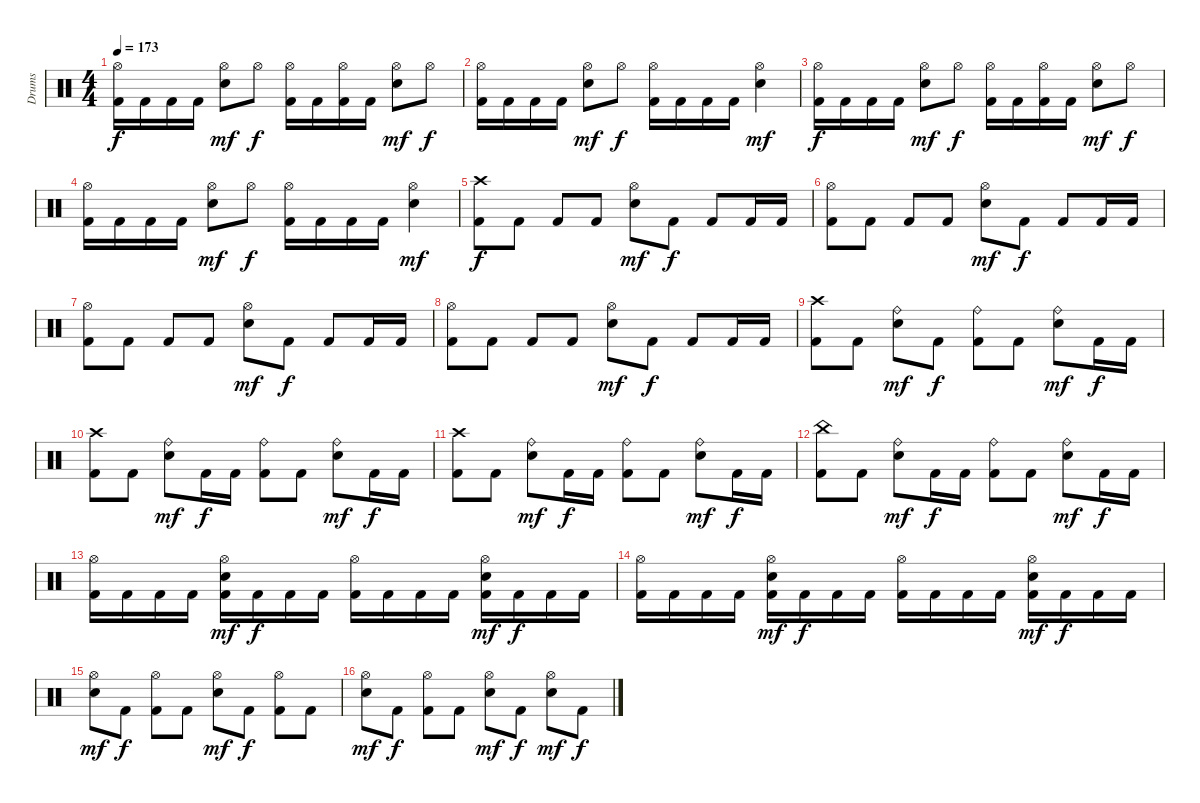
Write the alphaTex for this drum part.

\track ("Drums" "Drums") {instrument percussion}
\staff {score}
\articulation defaults
\ts (4 4)
\tempo 173
\clef neutral
\ks c
("Hi-Hat (open)" "Kick (hit) 2").16{dy f} "Kick (hit) 2".16 "Kick (hit) 2".16 "Kick (hit) 2".16 ("Hi-Hat (open)" "Snare (hit) 2").8{dy mf} "Hi-Hat (open)".8{dy f} ("Hi-Hat (open)" "Kick (hit) 2").16 "Kick (hit) 2".16 ("Hi-Hat (open)" "Kick (hit) 2").16 "Kick (hit) 2".16 ("Hi-Hat (open)" "Snare (hit) 2").8{dy mf} "Hi-Hat (open)".8{dy f} |
("Hi-Hat (open)" "Kick (hit) 2").16 "Kick (hit) 2".16 "Kick (hit) 2".16 "Kick (hit) 2".16 ("Hi-Hat (open)" "Snare (hit) 2").8{dy mf} "Hi-Hat (open)".8{dy f} ("Hi-Hat (open)" "Kick (hit) 2").16 "Kick (hit) 2".16 "Kick (hit) 2".16 "Kick (hit) 2".16 ("Hi-Hat (open)" "Snare (hit) 2").4{dy mf} |
("Hi-Hat (open)" "Kick (hit) 2").16{dy f} "Kick (hit) 2".16 "Kick (hit) 2".16 "Kick (hit) 2".16 ("Hi-Hat (open)" "Snare (hit) 2").8{dy mf} "Hi-Hat (open)".8{dy f} ("Hi-Hat (open)" "Kick (hit) 2").16 "Kick (hit) 2".16 ("Hi-Hat (open)" "Kick (hit) 2").16 "Kick (hit) 2".16 ("Hi-Hat (open)" "Snare (hit) 2").8{dy mf} "Hi-Hat (open)".8{dy f} |
("Hi-Hat (open)" "Kick (hit) 2").16 "Kick (hit) 2".16 "Kick (hit) 2".16 "Kick (hit) 2".16 ("Hi-Hat (open)" "Snare (hit) 2").8{dy mf} "Hi-Hat (open)".8{dy f} ("Hi-Hat (open)" "Kick (hit) 2").16 "Kick (hit) 2".16 "Kick (hit) 2".16 "Kick (hit) 2".16 ("Hi-Hat (open)" "Snare (hit) 2").4{dy mf} |
\section ("" "")
("Crash high (hit)" "Kick (hit) 2").8{dy f} "Kick (hit) 2".8 "Kick (hit) 2".8 "Kick (hit) 2".8 ("Hi-Hat (open)" "Snare (hit) 2").8{dy mf} "Kick (hit) 2".8{dy f} "Kick (hit) 2".8 "Kick (hit) 2".16 "Kick (hit) 2".16 |
("Hi-Hat (open)" "Kick (hit) 2").8 "Kick (hit) 2".8 "Kick (hit) 2".8 "Kick (hit) 2".8 ("Hi-Hat (open)" "Snare (hit) 2").8{dy mf} "Kick (hit) 2".8{dy f} "Kick (hit) 2".8 "Kick (hit) 2".16 "Kick (hit) 2".16 |
("Hi-Hat (open)" "Kick (hit) 2").8 "Kick (hit) 2".8 "Kick (hit) 2".8 "Kick (hit) 2".8 ("Hi-Hat (open)" "Snare (hit) 2").8{dy mf} "Kick (hit) 2".8{dy f} "Kick (hit) 2".8 "Kick (hit) 2".16 "Kick (hit) 2".16 |
("Hi-Hat (open)" "Kick (hit) 2").8 "Kick (hit) 2".8 "Kick (hit) 2".8 "Kick (hit) 2".8 ("Hi-Hat (open)" "Snare (hit) 2").8{dy mf} "Kick (hit) 2".8{dy f} "Kick (hit) 2".8 "Kick (hit) 2".16 "Kick (hit) 2".16 |
\section ("" "")
("Crash high (hit)" "Kick (hit) 2").8 "Kick (hit) 2".8 ("Ride (bell)" "Snare (hit) 2").8{dy mf} "Kick (hit) 2".8{dy f} ("Ride (bell)" "Kick (hit) 2").8 "Kick (hit) 2".8 ("Ride (bell)" "Snare (hit) 2").8{dy mf} "Kick (hit) 2".16{dy f} "Kick (hit) 2".16 |
("Crash high (hit)" "Kick (hit) 2").8 "Kick (hit) 2".8 ("Ride (bell)" "Snare (hit) 2").8{dy mf} "Kick (hit) 2".16{dy f} "Kick (hit) 2".16 ("Ride (bell)" "Kick (hit) 2").8 "Kick (hit) 2".8 ("Ride (bell)" "Snare (hit) 2").8{dy mf} "Kick (hit) 2".16{dy f} "Kick (hit) 2".16 |
("Crash high (hit)" "Kick (hit) 2").8 "Kick (hit) 2".8 ("Ride (bell)" "Snare (hit) 2").8{dy mf} "Kick (hit) 2".16{dy f} "Kick (hit) 2".16 ("Ride (bell)" "Kick (hit) 2").8 "Kick (hit) 2".8 ("Ride (bell)" "Snare (hit) 2").8{dy mf} "Kick (hit) 2".16{dy f} "Kick (hit) 2".16 |
("China (hit)" "Kick (hit) 2").8 "Kick (hit) 2".8 ("Ride (bell)" "Snare (hit) 2").8{dy mf} "Kick (hit) 2".16{dy f} "Kick (hit) 2".16 ("Ride (bell)" "Kick (hit) 2").8 "Kick (hit) 2".8 ("Ride (bell)" "Snare (hit) 2").8{dy mf} "Kick (hit) 2".16{dy f} "Kick (hit) 2".16 |
("Hi-Hat (open)" "Kick (hit) 2").16 "Kick (hit) 2".16 "Kick (hit) 2".16 "Kick (hit) 2".16 ("Hi-Hat (open)" "Snare (hit) 2" "Kick (hit) 2").16{dy mf} "Kick (hit) 2".16{dy f} "Kick (hit) 2".16 "Kick (hit) 2".16 ("Hi-Hat (open)" "Kick (hit) 2").16 "Kick (hit) 2".16 "Kick (hit) 2".16 "Kick (hit) 2".16 ("Hi-Hat (open)" "Snare (hit) 2" "Kick (hit) 2").16{dy mf} "Kick (hit) 2".16{dy f} "Kick (hit) 2".16 "Kick (hit) 2".16 |
("Hi-Hat (open)" "Kick (hit) 2").16 "Kick (hit) 2".16 "Kick (hit) 2".16 "Kick (hit) 2".16 ("Hi-Hat (open)" "Snare (hit) 2" "Kick (hit) 2").16{dy mf} "Kick (hit) 2".16{dy f} "Kick (hit) 2".16 "Kick (hit) 2".16 ("Hi-Hat (open)" "Kick (hit) 2").16 "Kick (hit) 2".16 "Kick (hit) 2".16 "Kick (hit) 2".16 ("Hi-Hat (open)" "Snare (hit) 2" "Kick (hit) 2").16{dy mf} "Kick (hit) 2".16{dy f} "Kick (hit) 2".16 "Kick (hit) 2".16 |
("Hi-Hat (open)" "Snare (hit) 2").8{dy mf} "Kick (hit) 2".8{dy f} ("Hi-Hat (open)" "Kick (hit) 2").8 "Kick (hit) 2".8 ("Hi-Hat (open)" "Snare (hit) 2").8{dy mf} "Kick (hit) 2".8{dy f} ("Hi-Hat (open)" "Kick (hit) 2").8 "Kick (hit) 2".8 |
("Hi-Hat (open)" "Snare (hit) 2").8{dy mf} "Kick (hit) 2".8{dy f} ("Hi-Hat (open)" "Kick (hit) 2").8 "Kick (hit) 2".8 ("Hi-Hat (open)" "Snare (hit) 2").8{dy mf} "Kick (hit) 2".8{dy f} ("Hi-Hat (open)" "Snare (hit) 2").8{dy mf} "Kick (hit) 2".8{dy f}
